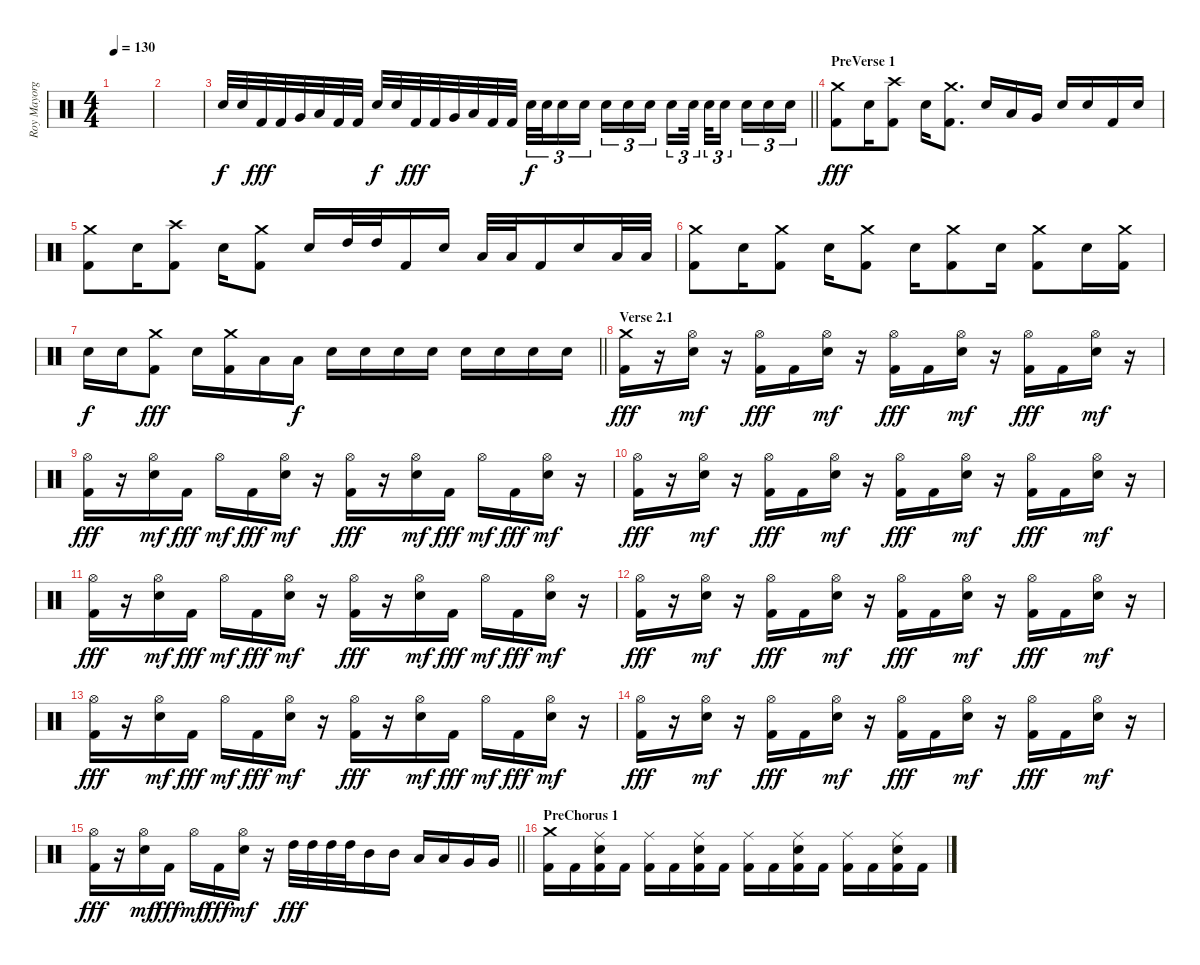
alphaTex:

\track ("Roy Mayorga" "Roy Mayorg") {instrument percussion}
\staff {score}
\articulation defaults
\ts (4 4)
\tempo 130
\clef neutral
\ks c
|
|
\barLineRight lightlight "Electric Snare (hit)".32{dy f} "Electric Snare (hit)".32 "Kick (hit) 2".32{dy fff} "Kick (hit) 2".32 "Very Low Tom (hit)".32 "Low Floor Tom (hit)".32 "Kick (hit) 2".32 "Kick (hit) 2".32 "Electric Snare (hit)".32{dy f} "Electric Snare (hit)".32 "Kick (hit) 2".32{dy fff} "Kick (hit) 2".32 "Very Low Tom (hit)".32 "Low Floor Tom (hit)".32 "Kick (hit) 2".32 "Kick (hit) 2".32 "Electric Snare (hit)".32{tu (3 2) dy f} "Electric Snare (hit)".32{tu (3 2)} "Electric Snare (hit)".16{tu (3 2)} "Electric Snare (hit)".16{tu (3 2) beam splitsecondary} "Electric Snare (hit)".16{tu (3 2)} "Electric Snare (hit)".16{tu (3 2)} "Electric Snare (hit)".16{tu (3 2)} "Electric Snare (hit)".16{tu (3 2)} "Electric Snare (hit)".32{tu (3 2) beam splitsecondary} "Electric Snare (hit)".32{tu (3 2)} "Electric Snare (hit)".16{tu (3 2) beam splitsecondary} "Electric Snare (hit)".16{tu (3 2)} "Electric Snare (hit)".16{tu (3 2)} "Electric Snare (hit)".16{tu (3 2)}
|
\section ("" "PreVerse 1")
("Crash medium (hit)" "Kick (hit) 2").8{dy fff} "Electric Snare (hit)".16 ("Crash high (hit)" "Kick (hit) 2").8 "Electric Snare (hit)".16 ("Crash medium (hit)" "Kick (hit) 2").8{d} "Electric Snare (hit)".16 "Low Tom (hit)".16 "Very Low Tom (hit)".16 "Electric Snare (hit)".16 "Electric Snare (hit)".16 "Kick (hit) 2".16 "Electric Snare (hit)".16 |
("Crash medium (hit)" "Kick (hit) 2").8 "Electric Snare (hit)".16 ("Crash high (hit)" "Kick (hit) 2").8 "Electric Snare (hit)".16 ("Crash medium (hit)" "Kick (hit) 2").8 "Electric Snare (hit)".16 "High Tom (hit)".32 "High Tom (hit)".32 "Kick (hit) 2".16 "Electric Snare (hit)".16 "Low Tom (hit)".32 "Low Tom (hit)".32 "Kick (hit) 2".16 "Electric Snare (hit)".16 "Low Floor Tom (hit)".32 "Low Floor Tom (hit)".32 |
("Crash medium (hit)" "Kick (hit) 2").8 "Electric Snare (hit)".16 ("Crash medium (hit)" "Kick (hit) 2").8 "Electric Snare (hit)".16 ("Crash medium (hit)" "Kick (hit) 2").8 "Electric Snare (hit)".16 ("Crash medium (hit)" "Kick (hit) 2").8 "Electric Snare (hit)".16 ("Crash medium (hit)" "Kick (hit) 2").8 "Electric Snare (hit)".16 ("Crash medium (hit)" "Kick (hit) 2").16 |
\barLineRight lightlight "Electric Snare (hit)".16{dy f} "Electric Snare (hit)".16
("Crash medium (hit)" "Kick (hit) 2").8{dy fff} "Electric Snare (hit)".16 ("Crash medium (hit)" "Kick (hit) 2").16 "Low Tom (hit)".16 "Low Tom (hit)".16{dy f} "Electric Snare (hit)".16 "Electric Snare (hit)".16 "Electric Snare (hit)".16 "Electric Snare (hit)".16 "Electric Snare (hit)".16 "Electric Snare (hit)".16 "Electric Snare (hit)".16 "Electric Snare (hit)".16 |
\section ("" "Verse 2.1")
("Crash medium (hit)" "Kick (hit) 2").16{dy fff} r.16 ("Hi-Hat (open)" "Electric Snare (hit)").16{dy mf} r.16 ("Hi-Hat (open)" "Kick (hit) 2").16{dy fff} "Kick (hit) 2".16 ("Hi-Hat (open)" "Electric Snare (hit)").16{dy mf} r.16 ("Hi-Hat (open)" "Kick (hit) 2").16{dy fff} "Kick (hit) 2".16 ("Hi-Hat (open)" "Electric Snare (hit)").16{dy mf} r.16 ("Hi-Hat (open)" "Kick (hit) 2").16{dy fff} "Kick (hit) 2".16 ("Hi-Hat (open)" "Electric Snare (hit)").16{dy mf} r.16 |
("Hi-Hat (open)" "Kick (hit) 2").16{dy fff} r.16 ("Hi-Hat (open)" "Electric Snare (hit)").16{dy mf} "Kick (hit) 2".16{dy fff} "Hi-Hat (open)".16{dy mf} "Kick (hit) 2".16{dy fff} ("Hi-Hat (open)" "Electric Snare (hit)").16{dy mf} r.16 ("Hi-Hat (open)" "Kick (hit) 2").16{dy fff} r.16 ("Hi-Hat (open)" "Electric Snare (hit)").16{dy mf} "Kick (hit) 2".16{dy fff} "Hi-Hat (open)".16{dy mf} "Kick (hit) 2".16{dy fff} ("Hi-Hat (open)" "Electric Snare (hit)").16{dy mf} r.16 |
("Hi-Hat (open)" "Kick (hit) 2").16{dy fff} r.16 ("Hi-Hat (open)" "Electric Snare (hit)").16{dy mf} r.16 ("Hi-Hat (open)" "Kick (hit) 2").16{dy fff} "Kick (hit) 2".16 ("Hi-Hat (open)" "Electric Snare (hit)").16{dy mf} r.16 ("Hi-Hat (open)" "Kick (hit) 2").16{dy fff} "Kick (hit) 2".16 ("Hi-Hat (open)" "Electric Snare (hit)").16{dy mf} r.16 ("Hi-Hat (open)" "Kick (hit) 2").16{dy fff} "Kick (hit) 2".16 ("Hi-Hat (open)" "Electric Snare (hit)").16{dy mf} r.16 |
("Hi-Hat (open)" "Kick (hit) 2").16{dy fff} r.16 ("Hi-Hat (open)" "Electric Snare (hit)").16{dy mf} "Kick (hit) 2".16{dy fff} "Hi-Hat (open)".16{dy mf} "Kick (hit) 2".16{dy fff} ("Hi-Hat (open)" "Electric Snare (hit)").16{dy mf} r.16 ("Hi-Hat (open)" "Kick (hit) 2").16{dy fff} r.16 ("Hi-Hat (open)" "Electric Snare (hit)").16{dy mf} "Kick (hit) 2".16{dy fff} "Hi-Hat (open)".16{dy mf} "Kick (hit) 2".16{dy fff} ("Hi-Hat (open)" "Electric Snare (hit)").16{dy mf} r.16 |
("Hi-Hat (open)" "Kick (hit) 2").16{dy fff} r.16 ("Hi-Hat (open)" "Electric Snare (hit)").16{dy mf} r.16 ("Hi-Hat (open)" "Kick (hit) 2").16{dy fff} "Kick (hit) 2".16 ("Hi-Hat (open)" "Electric Snare (hit)").16{dy mf} r.16 ("Hi-Hat (open)" "Kick (hit) 2").16{dy fff} "Kick (hit) 2".16 ("Hi-Hat (open)" "Electric Snare (hit)").16{dy mf} r.16 ("Hi-Hat (open)" "Kick (hit) 2").16{dy fff} "Kick (hit) 2".16 ("Hi-Hat (open)" "Electric Snare (hit)").16{dy mf} r.16 |
("Hi-Hat (open)" "Kick (hit) 2").16{dy fff} r.16 ("Hi-Hat (open)" "Electric Snare (hit)").16{dy mf} "Kick (hit) 2".16{dy fff} "Hi-Hat (open)".16{dy mf} "Kick (hit) 2".16{dy fff} ("Hi-Hat (open)" "Electric Snare (hit)").16{dy mf} r.16 ("Hi-Hat (open)" "Kick (hit) 2").16{dy fff} r.16 ("Hi-Hat (open)" "Electric Snare (hit)").16{dy mf} "Kick (hit) 2".16{dy fff} "Hi-Hat (open)".16{dy mf} "Kick (hit) 2".16{dy fff} ("Hi-Hat (open)" "Electric Snare (hit)").16{dy mf} r.16 |
("Hi-Hat (open)" "Kick (hit) 2").16{dy fff} r.16 ("Hi-Hat (open)" "Electric Snare (hit)").16{dy mf} r.16 ("Hi-Hat (open)" "Kick (hit) 2").16{dy fff} "Kick (hit) 2".16 ("Hi-Hat (open)" "Electric Snare (hit)").16{dy mf} r.16 ("Hi-Hat (open)" "Kick (hit) 2").16{dy fff} "Kick (hit) 2".16 ("Hi-Hat (open)" "Electric Snare (hit)").16{dy mf} r.16 ("Hi-Hat (open)" "Kick (hit) 2").16{dy fff} "Kick (hit) 2".16 ("Hi-Hat (open)" "Electric Snare (hit)").16{dy mf} r.16 |
\barLineRight lightlight
("Hi-Hat (open)" "Kick (hit) 2").16{dy fff} r.16 ("Hi-Hat (open)" "Electric Snare (hit)").16{dy mf} "Kick (hit) 2".16{dy fff} "Hi-Hat (open)".16{dy mf} "Kick (hit) 2".16{dy fff} ("Hi-Hat (open)" "Electric Snare (hit)").16{dy mf} r.16 "High Tom (hit)".32{dy fff} "High Tom (hit)".32 "High Tom (hit)".32 "High Tom (hit)".32 "Mid Tom (hit)".16 "Mid Tom (hit)".16 "Low Tom (hit)".16 "Low Tom (hit)".16 "Very Low Tom (hit)".16 "Very Low Tom (hit)".16 |
\section ("" "PreChorus 1")
("Crash medium (hit)" "Kick (hit) 2").16 "Kick (hit) 2".16 ("Ride (middle)" "Electric Snare (hit)" "Kick (hit) 2").16 "Kick (hit) 2".16 ("Ride (middle)" "Kick (hit) 2").16 "Kick (hit) 2".16 ("Ride (middle)" "Electric Snare (hit)" "Kick (hit) 2").16 "Kick (hit) 2".16 ("Ride (middle)" "Kick (hit) 2").16 "Kick (hit) 2".16 ("Ride (middle)" "Electric Snare (hit)" "Kick (hit) 2").16 "Kick (hit) 2".16 ("Ride (middle)" "Kick (hit) 2").16 "Kick (hit) 2".16 ("Ride (middle)" "Electric Snare (hit)" "Kick (hit) 2").16 "Kick (hit) 2".16
